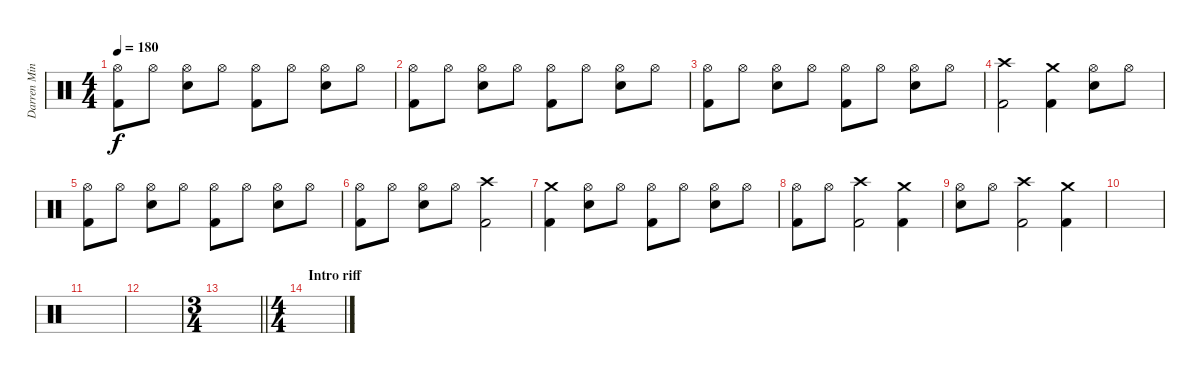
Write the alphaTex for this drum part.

\track ("Darren Minter" "Darren Min") {instrument percussion}
\staff {score}
\articulation defaults
\ts (4 4)
\tempo 180
\clef neutral
\ks c
("Hi-Hat (open)" "Kick (hit) 2").8{dy f} "Hi-Hat (open)".8 ("Hi-Hat (open)" "Electric Snare (hit)").8 "Hi-Hat (open)".8 ("Hi-Hat (open)" "Kick (hit) 2").8 "Hi-Hat (open)".8 ("Hi-Hat (open)" "Electric Snare (hit)").8 "Hi-Hat (open)".8 |
("Hi-Hat (open)" "Kick (hit) 2").8 "Hi-Hat (open)".8 ("Hi-Hat (open)" "Electric Snare (hit)").8 "Hi-Hat (open)".8 ("Hi-Hat (open)" "Kick (hit) 2").8 "Hi-Hat (open)".8 ("Hi-Hat (open)" "Electric Snare (hit)").8 "Hi-Hat (open)".8 |
("Hi-Hat (open)" "Kick (hit) 2").8 "Hi-Hat (open)".8 ("Hi-Hat (open)" "Electric Snare (hit)").8 "Hi-Hat (open)".8 ("Hi-Hat (open)" "Kick (hit) 2").8 "Hi-Hat (open)".8 ("Hi-Hat (open)" "Electric Snare (hit)").8 "Hi-Hat (open)".8 |
("Crash high (hit)" "Kick (hit) 2").2 ("Crash medium (hit)" "Kick (hit) 2").4 ("Hi-Hat (open)" "Electric Snare (hit)").8 "Hi-Hat (open)".8 |
("Hi-Hat (open)" "Kick (hit) 2").8 "Hi-Hat (open)".8 ("Hi-Hat (open)" "Electric Snare (hit)").8 "Hi-Hat (open)".8 ("Hi-Hat (open)" "Kick (hit) 2").8 "Hi-Hat (open)".8 ("Hi-Hat (open)" "Electric Snare (hit)").8 "Hi-Hat (open)".8 |
("Hi-Hat (open)" "Kick (hit) 2").8 "Hi-Hat (open)".8 ("Hi-Hat (open)" "Electric Snare (hit)").8 "Hi-Hat (open)".8 ("Crash high (hit)" "Kick (hit) 2").2 |
("Crash medium (hit)" "Kick (hit) 2").4 ("Hi-Hat (open)" "Electric Snare (hit)").8 "Hi-Hat (open)".8 ("Hi-Hat (open)" "Kick (hit) 2").8 "Hi-Hat (open)".8 ("Hi-Hat (open)" "Electric Snare (hit)").8 "Hi-Hat (open)".8 |
("Hi-Hat (open)" "Kick (hit) 2").8 "Hi-Hat (open)".8 ("Crash high (hit)" "Kick (hit) 2").2 ("Crash medium (hit)" "Kick (hit) 2").4 |
("Hi-Hat (open)" "Electric Snare (hit)").8 "Hi-Hat (open)".8 ("Crash high (hit)" "Kick (hit) 2").2 ("Crash medium (hit)" "Kick (hit) 2").4 |
|
|
|
\ts (3 4)
\barLineRight lightlight
|
\ts (4 4)
\section ("" "Intro riff")
